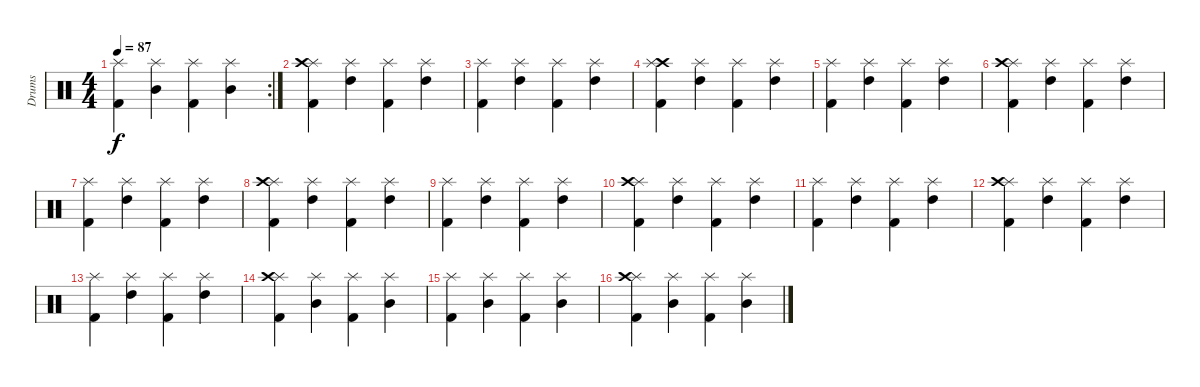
\track ("Drums" "Drums") {instrument percussion}
\staff {score}
\articulation defaults
\rc 2
\ts (4 4)
\tempo 87
\clef neutral
\ks c
("Splash (hit)" "Kick (hit) 2").4{dy f} ("Splash (hit)" "Mid Tom (hit)").4 ("Splash (hit)" "Kick (hit) 2").4 ("Splash (hit)" "Mid Tom (hit)").4 |
("Splash (hit)" "Crash high (hit)" "Kick (hit) 2").4 ("Splash (hit)" "High Tom (hit)").4 ("Splash (hit)" "Kick (hit) 2").4 ("Splash (hit)" "High Tom (hit)").4 |
("Splash (hit)" "Kick (hit) 2").4 ("Splash (hit)" "High Tom (hit)").4 ("Splash (hit)" "Kick (hit) 2").4 ("Splash (hit)" "High Tom (hit)").4 |
("Crash high (hit)" "Splash (hit)" "Kick (hit) 2").4 ("Splash (hit)" "High Tom (hit)").4 ("Splash (hit)" "Kick (hit) 2").4 ("Splash (hit)" "High Tom (hit)").4 |
("Splash (hit)" "Kick (hit) 2").4 ("Splash (hit)" "High Tom (hit)").4 ("Splash (hit)" "Kick (hit) 2").4 ("Splash (hit)" "High Tom (hit)").4 |
("Splash (hit)" "Crash high (hit)" "Kick (hit) 2").4 ("Splash (hit)" "High Tom (hit)").4 ("Splash (hit)" "Kick (hit) 2").4 ("Splash (hit)" "High Tom (hit)").4 |
("Splash (hit)" "Kick (hit) 2").4 ("Splash (hit)" "High Tom (hit)").4 ("Splash (hit)" "Kick (hit) 2").4 ("Splash (hit)" "High Tom (hit)").4 |
("Splash (hit)" "Crash high (hit)" "Kick (hit) 2").4 ("Splash (hit)" "High Tom (hit)").4 ("Splash (hit)" "Kick (hit) 2").4 ("Splash (hit)" "High Tom (hit)").4 |
("Splash (hit)" "Kick (hit) 2").4 ("Splash (hit)" "High Tom (hit)").4 ("Splash (hit)" "Kick (hit) 2").4 ("Splash (hit)" "High Tom (hit)").4 |
("Splash (hit)" "Crash high (hit)" "Kick (hit) 2").4 ("Splash (hit)" "High Tom (hit)").4 ("Splash (hit)" "Kick (hit) 2").4 ("Splash (hit)" "High Tom (hit)").4 |
("Splash (hit)" "Kick (hit) 2").4 ("Splash (hit)" "High Tom (hit)").4 ("Splash (hit)" "Kick (hit) 2").4 ("Splash (hit)" "High Tom (hit)").4 |
("Splash (hit)" "Crash high (hit)" "Kick (hit) 2").4 ("Splash (hit)" "High Tom (hit)").4 ("Splash (hit)" "Kick (hit) 2").4 ("Splash (hit)" "High Tom (hit)").4 |
("Splash (hit)" "Kick (hit) 2").4 ("Splash (hit)" "High Tom (hit)").4 ("Splash (hit)" "Kick (hit) 2").4 ("Splash (hit)" "High Tom (hit)").4 |
("Splash (hit)" "Crash high (hit)" "Kick (hit) 2").4 ("Splash (hit)" "Mid Tom (hit)").4 ("Splash (hit)" "Kick (hit) 2").4 ("Splash (hit)" "Mid Tom (hit)").4 |
("Splash (hit)" "Kick (hit) 2").4 ("Splash (hit)" "Mid Tom (hit)").4 ("Splash (hit)" "Kick (hit) 2").4 ("Splash (hit)" "Mid Tom (hit)").4 |
("Splash (hit)" "Crash high (hit)" "Kick (hit) 2").4 ("Splash (hit)" "Mid Tom (hit)").4 ("Splash (hit)" "Kick (hit) 2").4 ("Splash (hit)" "Mid Tom (hit)").4
